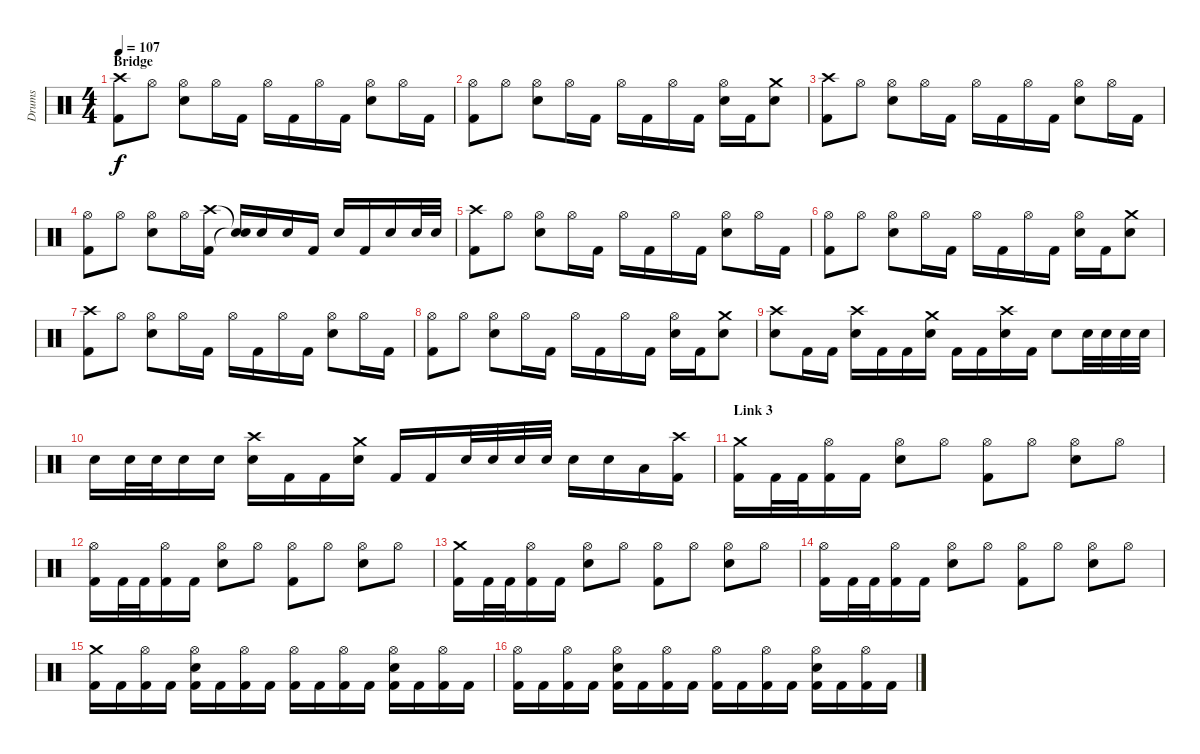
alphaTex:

\track ("Drums" "Drums") {instrument percussion}
\staff {score}
\articulation defaults
\ts (4 4)
\section ("" "Bridge")
\tempo 107
\clef neutral
\ks c
("Crash high (hit)" "Kick (hit) 2").8{dy f} "Hi-Hat (open)".8 ("Hi-Hat (open)" "Electric Snare (hit)").8 "Hi-Hat (open)".16 "Kick (hit) 2".16 "Hi-Hat (open)".16 "Kick (hit) 2".16 "Hi-Hat (open)".16 "Kick (hit) 2".16 ("Hi-Hat (open)" "Electric Snare (hit)").8 "Hi-Hat (open)".16 "Kick (hit) 2".16 |
("Hi-Hat (open)" "Kick (hit) 2").8 "Hi-Hat (open)".8 ("Hi-Hat (open)" "Electric Snare (hit)").8 "Hi-Hat (open)".16 "Kick (hit) 2".16 "Hi-Hat (open)".16 "Kick (hit) 2".16 "Hi-Hat (open)".16 "Kick (hit) 2".16 ("Hi-Hat (open)" "Electric Snare (hit)").16 "Kick (hit) 2".16 ("Crash medium (hit)" "Electric Snare (hit)").8 |
("Crash high (hit)" "Kick (hit) 2").8 "Hi-Hat (open)".8 ("Hi-Hat (open)" "Electric Snare (hit)").8 "Hi-Hat (open)".16 "Kick (hit) 2".16 "Hi-Hat (open)".16 "Kick (hit) 2".16 "Hi-Hat (open)".16 "Kick (hit) 2".16 ("Hi-Hat (open)" "Electric Snare (hit)").8 "Hi-Hat (open)".16 "Kick (hit) 2".16 |
("Hi-Hat (open)" "Kick (hit) 2").8 "Hi-Hat (open)".8 ("Hi-Hat (open)" "Electric Snare (hit)").8 "Hi-Hat (open)".16 ("Crash high (hit)" "Kick (hit) 2").16 ("Snare (hit)"{t} "Snare (hit)"{t}).16 "Electric Snare (hit)".16 "Electric Snare (hit)".16 "Kick (hit) 2".16 "Electric Snare (hit)".16 "Kick (hit) 2".16 "Electric Snare (hit)".16 "Electric Snare (hit)".32 "Electric Snare (hit)".32 |
("Crash high (hit)" "Kick (hit) 2").8 "Hi-Hat (open)".8 ("Hi-Hat (open)" "Electric Snare (hit)").8 "Hi-Hat (open)".16 "Kick (hit) 2".16 "Hi-Hat (open)".16 "Kick (hit) 2".16 "Hi-Hat (open)".16 "Kick (hit) 2".16 ("Hi-Hat (open)" "Electric Snare (hit)").8 "Hi-Hat (open)".16 "Kick (hit) 2".16 |
("Hi-Hat (open)" "Kick (hit) 2").8 "Hi-Hat (open)".8 ("Hi-Hat (open)" "Electric Snare (hit)").8 "Hi-Hat (open)".16 "Kick (hit) 2".16 "Hi-Hat (open)".16 "Kick (hit) 2".16 "Hi-Hat (open)".16 "Kick (hit) 2".16 ("Hi-Hat (open)" "Electric Snare (hit)").16 "Kick (hit) 2".16 ("Crash medium (hit)" "Electric Snare (hit)").8 |
("Crash high (hit)" "Kick (hit) 2").8 "Hi-Hat (open)".8 ("Hi-Hat (open)" "Electric Snare (hit)").8 "Hi-Hat (open)".16 "Kick (hit) 2".16 "Hi-Hat (open)".16 "Kick (hit) 2".16 "Hi-Hat (open)".16 "Kick (hit) 2".16 ("Hi-Hat (open)" "Electric Snare (hit)").8 "Hi-Hat (open)".16 "Kick (hit) 2".16 |
("Hi-Hat (open)" "Kick (hit) 2").8 "Hi-Hat (open)".8 ("Hi-Hat (open)" "Electric Snare (hit)").8 "Hi-Hat (open)".16 "Kick (hit) 2".16 "Hi-Hat (open)".16 "Kick (hit) 2".16 "Hi-Hat (open)".16 "Kick (hit) 2".16 ("Hi-Hat (open)" "Electric Snare (hit)").16 "Kick (hit) 2".16 ("Crash medium (hit)" "Electric Snare (hit)").8 |
("Crash high (hit)" "Electric Snare (hit)").8 "Kick (hit) 2".16 "Kick (hit) 2".16 ("Crash high (hit)" "Electric Snare (hit)").16 "Kick (hit) 2".16 "Kick (hit) 2".16 ("Crash medium (hit)" "Electric Snare (hit)").16 "Kick (hit) 2".16 "Kick (hit) 2".16 ("Crash high (hit)" "Electric Snare (hit)").16 "Kick (hit) 2".16 "Electric Snare (hit)".8 "Electric Snare (hit)".32 "Electric Snare (hit)".32 "Electric Snare (hit)".32 "Electric Snare (hit)".32 |
"Electric Snare (hit)".16 "Electric Snare (hit)".32 "Electric Snare (hit)".32 "Electric Snare (hit)".16 "Electric Snare (hit)".16 ("Crash high (hit)" "Electric Snare (hit)").16 "Kick (hit) 2".16 "Kick (hit) 2".16 ("Crash medium (hit)" "Electric Snare (hit)").16 "Kick (hit) 2".16 "Kick (hit) 2".16 "Electric Snare (hit)".32 "Electric Snare (hit)".32 "Electric Snare (hit)".32 "Electric Snare (hit)".32 "Electric Snare (hit)".16 "Electric Snare (hit)".16 "Low Tom (hit)".16 ("Crash high (hit)" "Kick (hit) 2").16 |
\section ("" "Link 3")
("Crash medium (hit)" "Kick (hit) 2").16 "Kick (hit) 2".32 "Kick (hit) 2".32 ("Hi-Hat (open)" "Kick (hit) 2").16 "Kick (hit) 2".16 ("Hi-Hat (open)" "Electric Snare (hit)").8 "Hi-Hat (open)".8 ("Hi-Hat (open)" "Kick (hit) 2").8 "Hi-Hat (open)".8 ("Hi-Hat (open)" "Electric Snare (hit)").8 "Hi-Hat (open)".8 |
("Hi-Hat (open)" "Kick (hit) 2").16 "Kick (hit) 2".32 "Kick (hit) 2".32 ("Hi-Hat (open)" "Kick (hit) 2").16 "Kick (hit) 2".16 ("Hi-Hat (open)" "Electric Snare (hit)").8 "Hi-Hat (open)".8 ("Hi-Hat (open)" "Kick (hit) 2").8 "Hi-Hat (open)".8 ("Hi-Hat (open)" "Electric Snare (hit)").8 "Hi-Hat (open)".8 |
("Crash medium (hit)" "Kick (hit) 2").16 "Kick (hit) 2".32 "Kick (hit) 2".32 ("Hi-Hat (open)" "Kick (hit) 2").16 "Kick (hit) 2".16 ("Hi-Hat (open)" "Electric Snare (hit)").8 "Hi-Hat (open)".8 ("Hi-Hat (open)" "Kick (hit) 2").8 "Hi-Hat (open)".8 ("Hi-Hat (open)" "Electric Snare (hit)").8 "Hi-Hat (open)".8 |
("Hi-Hat (open)" "Kick (hit) 2").16 "Kick (hit) 2".32 "Kick (hit) 2".32 ("Hi-Hat (open)" "Kick (hit) 2").16 "Kick (hit) 2".16 ("Hi-Hat (open)" "Electric Snare (hit)").8 "Hi-Hat (open)".8 ("Hi-Hat (open)" "Kick (hit) 2").8 "Hi-Hat (open)".8 ("Hi-Hat (open)" "Electric Snare (hit)").8 "Hi-Hat (open)".8 |
("Crash medium (hit)" "Kick (hit) 2").16 "Kick (hit) 2".16 ("Hi-Hat (open)" "Kick (hit) 2").16 "Kick (hit) 2".16 ("Hi-Hat (open)" "Electric Snare (hit)" "Kick (hit) 2").16 "Kick (hit) 2".16 ("Hi-Hat (open)" "Kick (hit) 2").16 "Kick (hit) 2".16 ("Hi-Hat (open)" "Kick (hit) 2").16 "Kick (hit) 2".16 ("Hi-Hat (open)" "Kick (hit) 2").16 "Kick (hit) 2".16 ("Hi-Hat (open)" "Electric Snare (hit)" "Kick (hit) 2").16 "Kick (hit) 2".16 ("Hi-Hat (open)" "Kick (hit) 2").16 "Kick (hit) 2".16 |
("Hi-Hat (open)" "Kick (hit) 2").16 "Kick (hit) 2".16 ("Hi-Hat (open)" "Kick (hit) 2").16 "Kick (hit) 2".16 ("Hi-Hat (open)" "Electric Snare (hit)" "Kick (hit) 2").16 "Kick (hit) 2".16 ("Hi-Hat (open)" "Kick (hit) 2").16 "Kick (hit) 2".16 ("Hi-Hat (open)" "Kick (hit) 2").16 "Kick (hit) 2".16 ("Hi-Hat (open)" "Kick (hit) 2").16 "Kick (hit) 2".16 ("Hi-Hat (open)" "Electric Snare (hit)" "Kick (hit) 2").16 "Kick (hit) 2".16 ("Hi-Hat (open)" "Kick (hit) 2").16 "Kick (hit) 2".16
